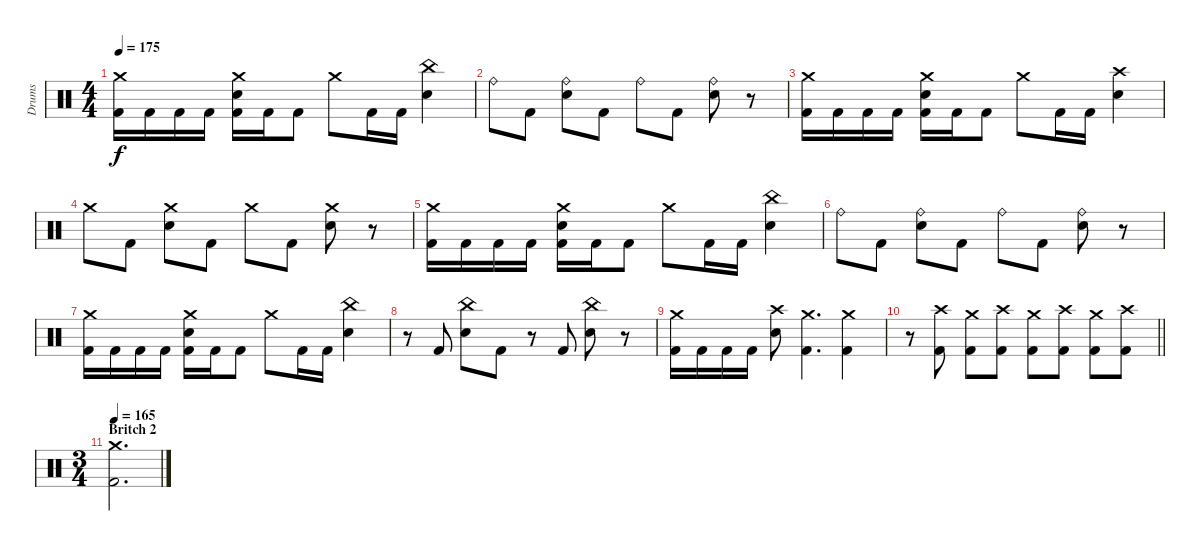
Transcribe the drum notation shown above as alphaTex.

\track ("Drums" "Drums") {instrument percussion}
\staff {score}
\articulation defaults
\ts (4 4)
\tempo 175
\clef neutral
\ks c
("Crash medium (hit)" "Kick (hit) 2").16{dy f} "Kick (hit) 2".16 "Kick (hit) 2".16 "Kick (hit) 2".16 ("Crash medium (hit)" "Electric Snare (hit)" "Kick (hit) 2").16 "Kick (hit) 2".16 "Kick (hit) 2".8 "Crash medium (hit)".8 "Kick (hit) 2".16 "Kick (hit) 2".16 ("China (hit)" "Electric Snare (hit)").4 |
"Ride (bell)".8 "Kick (hit) 2".8 ("Ride (bell)" "Electric Snare (hit)").8 "Kick (hit) 2".8 "Ride (bell)".8 "Kick (hit) 2".8 ("Ride (bell)" "Electric Snare (hit)").8 r.8 |
("Crash medium (hit)" "Kick (hit) 2").16 "Kick (hit) 2".16 "Kick (hit) 2".16 "Kick (hit) 2".16 ("Crash medium (hit)" "Electric Snare (hit)" "Kick (hit) 2").16 "Kick (hit) 2".16 "Kick (hit) 2".8 "Crash medium (hit)".8 "Kick (hit) 2".16 "Kick (hit) 2".16 ("Crash high (hit)" "Electric Snare (hit)").4 |
"Crash medium (hit)".8 "Kick (hit) 2".8 ("Crash medium (hit)" "Electric Snare (hit)").8 "Kick (hit) 2".8 "Crash medium (hit)".8 "Kick (hit) 2".8 ("Crash medium (hit)" "Electric Snare (hit)").8 r.8 |
("Crash medium (hit)" "Kick (hit) 2").16 "Kick (hit) 2".16 "Kick (hit) 2".16 "Kick (hit) 2".16 ("Crash medium (hit)" "Electric Snare (hit)" "Kick (hit) 2").16 "Kick (hit) 2".16 "Kick (hit) 2".8 "Crash medium (hit)".8 "Kick (hit) 2".16 "Kick (hit) 2".16 ("China (hit)" "Electric Snare (hit)").4 |
"Ride (bell)".8 "Kick (hit) 2".8 ("Ride (bell)" "Electric Snare (hit)").8 "Kick (hit) 2".8 "Ride (bell)".8 "Kick (hit) 2".8 ("Ride (bell)" "Electric Snare (hit)").8 r.8 |
("Crash medium (hit)" "Kick (hit) 2").16 "Kick (hit) 2".16 "Kick (hit) 2".16 "Kick (hit) 2".16 ("Crash medium (hit)" "Electric Snare (hit)" "Kick (hit) 2").16 "Kick (hit) 2".16 "Kick (hit) 2".8 "Crash medium (hit)".8 "Kick (hit) 2".16 "Kick (hit) 2".16 ("China (hit)" "Electric Snare (hit)").4 |
r.8 "Kick (hit) 2".8 ("China (hit)" "Electric Snare (hit)").8 "Kick (hit) 2".8 r.8 "Kick (hit) 2".8 ("China (hit)" "Electric Snare (hit)").8 r.8 |
("Crash medium (hit)" "Kick (hit) 2").16 "Kick (hit) 2".16 "Kick (hit) 2".16 "Kick (hit) 2".16 ("Crash high (hit)" "Electric Snare (hit)").8 ("Crash medium (hit)" "Kick (hit) 2").4{d} ("Crash medium (hit)" "Kick (hit) 2").4 |
\barLineRight lightlight
r.8 ("Crash high (hit)" "Kick (hit) 2").8 ("Crash medium (hit)" "Kick (hit) 2").8 ("Crash high (hit)" "Kick (hit) 2").8 ("Crash medium (hit)" "Kick (hit) 2").8 ("Crash high (hit)" "Kick (hit) 2").8 ("Crash medium (hit)" "Kick (hit) 2").8 ("Crash high (hit)" "Kick (hit) 2").8 |
\ts (3 4)
\section ("" "Britch 2")
\tempo 165
("Crash medium (hit)" "Kick (hit) 2").2{d}
